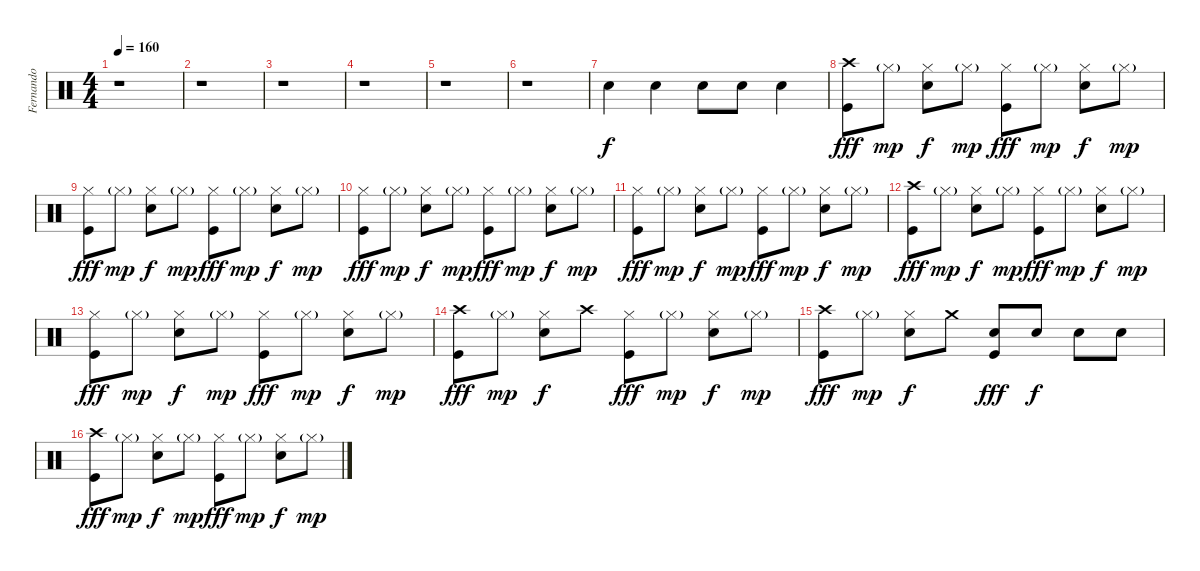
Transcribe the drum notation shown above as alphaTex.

\track ("Fernando" "Fernando") {instrument percussion}
\staff {score}
\articulation defaults
\ts (4 4)
\tempo 160
\clef neutral
\ks c
r.1{dy f} |
r.1 |
r.1 |
r.1 |
r.1 |
r.1 |
"Snare (hit) 2".4 "Snare (hit) 2".4 "Snare (hit) 2".8 "Snare (hit) 2".8 "Snare (hit) 2".4 |
("Crash high (hit)" "Kick (hit)").8{dy fff} "Hi-Hat (closed)"{g}.8{dy mp} ("Hi-Hat (closed)" "Snare (hit) 2").8{dy f} "Hi-Hat (closed)"{g}.8{dy mp} ("Hi-Hat (closed)" "Kick (hit)").8{dy fff} "Hi-Hat (closed)"{g}.8{dy mp} ("Hi-Hat (closed)" "Snare (hit) 2").8{dy f} "Hi-Hat (closed)"{g}.8{dy mp} |
("Hi-Hat (closed)" "Kick (hit)").8{dy fff} "Hi-Hat (closed)"{g}.8{dy mp} ("Hi-Hat (closed)" "Snare (hit) 2").8{dy f} "Hi-Hat (closed)"{g}.8{dy mp} ("Hi-Hat (closed)" "Kick (hit)").8{dy fff} "Hi-Hat (closed)"{g}.8{dy mp} ("Hi-Hat (closed)" "Snare (hit) 2").8{dy f} "Hi-Hat (closed)"{g}.8{dy mp} |
("Hi-Hat (closed)" "Kick (hit)").8{dy fff} "Hi-Hat (closed)"{g}.8{dy mp} ("Hi-Hat (closed)" "Snare (hit) 2").8{dy f} "Hi-Hat (closed)"{g}.8{dy mp} ("Hi-Hat (closed)" "Kick (hit)").8{dy fff} "Hi-Hat (closed)"{g}.8{dy mp} ("Hi-Hat (closed)" "Snare (hit) 2").8{dy f} "Hi-Hat (closed)"{g}.8{dy mp} |
("Hi-Hat (closed)" "Kick (hit)").8{dy fff} "Hi-Hat (closed)"{g}.8{dy mp} ("Hi-Hat (closed)" "Snare (hit) 2").8{dy f} "Hi-Hat (closed)"{g}.8{dy mp} ("Hi-Hat (closed)" "Kick (hit)").8{dy fff} "Hi-Hat (closed)"{g}.8{dy mp} ("Hi-Hat (closed)" "Snare (hit) 2").8{dy f} "Hi-Hat (closed)"{g}.8{dy mp} |
("Crash high (hit)" "Kick (hit)").8{dy fff} "Hi-Hat (closed)"{g}.8{dy mp} ("Hi-Hat (closed)" "Snare (hit) 2").8{dy f} "Hi-Hat (closed)"{g}.8{dy mp} ("Hi-Hat (closed)" "Kick (hit)").8{dy fff} "Hi-Hat (closed)"{g}.8{dy mp} ("Hi-Hat (closed)" "Snare (hit) 2").8{dy f} "Hi-Hat (closed)"{g}.8{dy mp} |
("Hi-Hat (closed)" "Kick (hit)").8{dy fff} "Hi-Hat (closed)"{g}.8{dy mp} ("Hi-Hat (closed)" "Snare (hit) 2").8{dy f} "Hi-Hat (closed)"{g}.8{dy mp} ("Hi-Hat (closed)" "Kick (hit)").8{dy fff} "Hi-Hat (closed)"{g}.8{dy mp} ("Hi-Hat (closed)" "Snare (hit) 2").8{dy f} "Hi-Hat (closed)"{g}.8{dy mp} |
("Crash high (hit)" "Kick (hit)").8{dy fff} "Hi-Hat (closed)"{g}.8{dy mp} ("Hi-Hat (closed)" "Snare (hit) 2").8{dy f} "Crash high (hit)".8 ("Hi-Hat (closed)" "Kick (hit)").8{dy fff} "Hi-Hat (closed)"{g}.8{dy mp} ("Hi-Hat (closed)" "Snare (hit) 2").8{dy f} "Hi-Hat (closed)"{g}.8{dy mp} |
("Crash high (hit)" "Kick (hit)").8{dy fff} "Hi-Hat (closed)"{g}.8{dy mp} ("Hi-Hat (closed)" "Snare (hit) 2").8{dy f} "Crash medium (hit)".8 ("Snare (hit) 2" "Kick (hit)").8{dy fff} "Snare (hit) 2".8{dy f} "Snare (hit) 2".8 "Snare (hit) 2".8 |
("Crash high (hit)" "Kick (hit)").8{dy fff} "Hi-Hat (closed)"{g}.8{dy mp} ("Hi-Hat (closed)" "Snare (hit) 2").8{dy f} "Hi-Hat (closed)"{g}.8{dy mp} ("Hi-Hat (closed)" "Kick (hit)").8{dy fff} "Hi-Hat (closed)"{g}.8{dy mp} ("Hi-Hat (closed)" "Snare (hit) 2").8{dy f} "Hi-Hat (closed)"{g}.8{dy mp}
